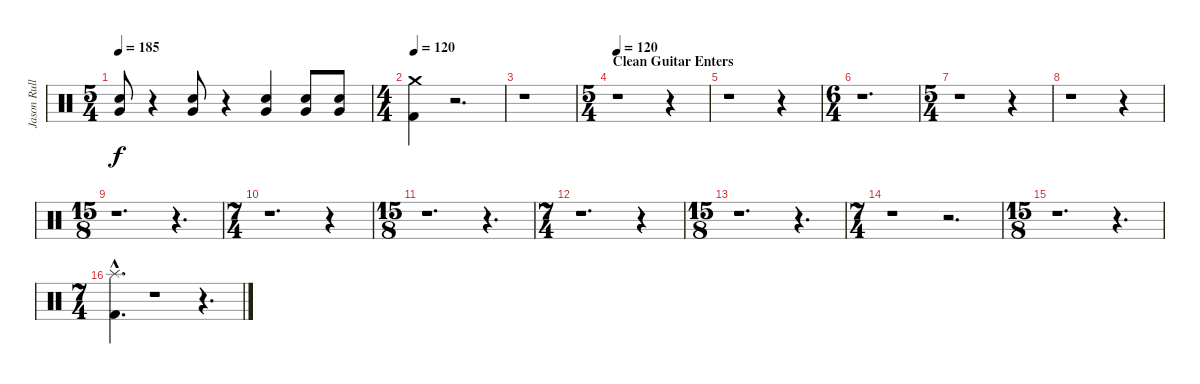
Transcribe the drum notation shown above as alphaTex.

\track ("Jason Rullo" "Jason Rull") {instrument percussion}
\staff {score}
\articulation defaults
\ts (5 4)
\tempo 185
\clef neutral
\ks c
("Very Low Tom (hit)" "Electric Snare (hit)").8{dy f} r.4 ("Very Low Tom (hit)" "Electric Snare (hit)").8 r.4 ("Very Low Tom (hit)" "Electric Snare (hit)").4 ("Very Low Tom (hit)" "Electric Snare (hit)").8 ("Very Low Tom (hit)" "Electric Snare (hit)").8 |
\ts (4 4)
\tempo 132
\tempo 120
("Crash medium (hit)" "Kick (hit) 2").4 r.2{d} |
r.1 |
\ts (5 4)
\section ("" "Clean Guitar Enters")
\tempo 120
r.1 r.4 |
r.1 r.4 |
\ts (6 4)
r.1{d} |
\ts (5 4)
r.1 r.4 |
r.1 r.4 |
\ts (15 8)
r.1{d} r.4{d} |
\ts (7 4)
r.1{d} r.4 |
\ts (15 8)
r.1{d} r.4{d} |
\ts (7 4)
r.1{d} r.4 |
\ts (15 8)
r.1{d} r.4{d} |
\ts (7 4)
r.1 r.2{d} |
\ts (15 8)
r.1{d} r.4{d} |
\ts (7 4)
("Splash (hit)"{hac} "Kick (hit) 2"{hac}).4{d} r.1 r.4{d}
